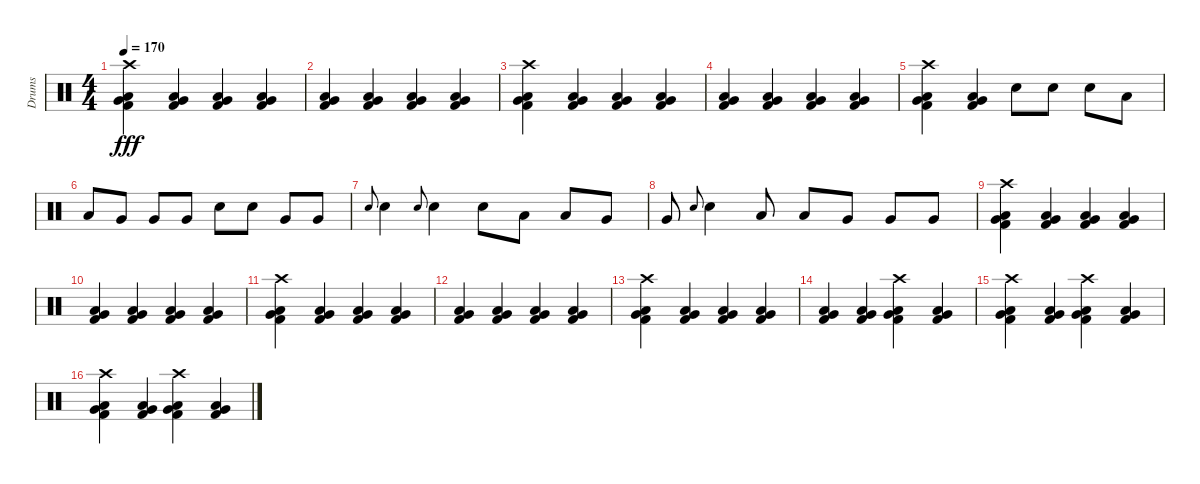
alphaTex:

\track ("Drums" "Drums") {instrument percussion}
\staff {score}
\articulation defaults
\ts (4 4)
\section ("" "")
\tempo 170
\clef neutral
\ks c
("Crash high (hit)" "Low Tom (hit)" "Very Low Tom (hit)" "Kick (hit) 2").4{dy fff} ("Low Tom (hit)" "Very Low Tom (hit)" "Kick (hit) 2").4 ("Low Tom (hit)" "Very Low Tom (hit)" "Kick (hit) 2").4 ("Low Tom (hit)" "Very Low Tom (hit)" "Kick (hit) 2").4 |
("Low Tom (hit)" "Very Low Tom (hit)" "Kick (hit) 2").4 ("Low Tom (hit)" "Very Low Tom (hit)" "Kick (hit) 2").4 ("Low Tom (hit)" "Very Low Tom (hit)" "Kick (hit) 2").4 ("Low Tom (hit)" "Very Low Tom (hit)" "Kick (hit) 2").4 |
("Crash high (hit)" "Low Tom (hit)" "Very Low Tom (hit)" "Kick (hit) 2").4 ("Low Tom (hit)" "Very Low Tom (hit)" "Kick (hit) 2").4 ("Low Tom (hit)" "Very Low Tom (hit)" "Kick (hit) 2").4 ("Low Tom (hit)" "Very Low Tom (hit)" "Kick (hit) 2").4 |
("Low Tom (hit)" "Very Low Tom (hit)" "Kick (hit) 2").4 ("Low Tom (hit)" "Very Low Tom (hit)" "Kick (hit) 2").4 ("Low Tom (hit)" "Very Low Tom (hit)" "Kick (hit) 2").4 ("Low Tom (hit)" "Very Low Tom (hit)" "Kick (hit) 2").4 |
("Crash high (hit)" "Low Tom (hit)" "Very Low Tom (hit)" "Kick (hit) 2").4 ("Low Tom (hit)" "Very Low Tom (hit)" "Kick (hit) 2").4 "Electric Snare (hit)".8 "Electric Snare (hit)".8 "Electric Snare (hit)".8 "Low Tom (hit)".8 |
"Low Tom (hit)".8 "Very Low Tom (hit)".8 "Very Low Tom (hit)".8 "Very Low Tom (hit)".8 "Electric Snare (hit)".8 "Electric Snare (hit)".8 "Very Low Tom (hit)".8 "Very Low Tom (hit)".8 |
"Electric Snare (hit)".8{gr onbeat} "Electric Snare (hit)".4 "Electric Snare (hit)".8{gr onbeat} "Electric Snare (hit)".4 "Electric Snare (hit)".8 "Low Tom (hit)".8 "Low Tom (hit)".8 "Very Low Tom (hit)".8 |
"Very Low Tom (hit)".8 "Electric Snare (hit)".8{gr onbeat} "Electric Snare (hit)".4 "Low Tom (hit)".8 "Low Tom (hit)".8 "Very Low Tom (hit)".8 "Very Low Tom (hit)".8 "Very Low Tom (hit)".8 |
("Crash high (hit)" "Low Tom (hit)" "Very Low Tom (hit)" "Kick (hit) 2").4 ("Low Tom (hit)" "Very Low Tom (hit)" "Kick (hit) 2").4 ("Low Tom (hit)" "Very Low Tom (hit)" "Kick (hit) 2").4 ("Low Tom (hit)" "Very Low Tom (hit)" "Kick (hit) 2").4 |
("Low Tom (hit)" "Very Low Tom (hit)" "Kick (hit) 2").4 ("Low Tom (hit)" "Very Low Tom (hit)" "Kick (hit) 2").4 ("Low Tom (hit)" "Very Low Tom (hit)" "Kick (hit) 2").4 ("Low Tom (hit)" "Very Low Tom (hit)" "Kick (hit) 2").4 |
("Crash high (hit)" "Low Tom (hit)" "Very Low Tom (hit)" "Kick (hit) 2").4 ("Low Tom (hit)" "Very Low Tom (hit)" "Kick (hit) 2").4 ("Low Tom (hit)" "Very Low Tom (hit)" "Kick (hit) 2").4 ("Low Tom (hit)" "Very Low Tom (hit)" "Kick (hit) 2").4 |
("Low Tom (hit)" "Very Low Tom (hit)" "Kick (hit) 2").4 ("Low Tom (hit)" "Very Low Tom (hit)" "Kick (hit) 2").4 ("Low Tom (hit)" "Very Low Tom (hit)" "Kick (hit) 2").4 ("Low Tom (hit)" "Very Low Tom (hit)" "Kick (hit) 2").4 |
("Crash high (hit)" "Low Tom (hit)" "Very Low Tom (hit)" "Kick (hit) 2").4 ("Low Tom (hit)" "Very Low Tom (hit)" "Kick (hit) 2").4 ("Low Tom (hit)" "Very Low Tom (hit)" "Kick (hit) 2").4 ("Low Tom (hit)" "Very Low Tom (hit)" "Kick (hit) 2").4 |
("Low Tom (hit)" "Very Low Tom (hit)" "Kick (hit) 2").4 ("Low Tom (hit)" "Very Low Tom (hit)" "Kick (hit) 2").4 ("Crash high (hit)" "Low Tom (hit)" "Very Low Tom (hit)" "Kick (hit) 2").4 ("Low Tom (hit)" "Very Low Tom (hit)" "Kick (hit) 2").4 |
("Crash high (hit)" "Low Tom (hit)" "Very Low Tom (hit)" "Kick (hit) 2").4 ("Low Tom (hit)" "Very Low Tom (hit)" "Kick (hit) 2").4 ("Crash high (hit)" "Low Tom (hit)" "Very Low Tom (hit)" "Kick (hit) 2").4 ("Low Tom (hit)" "Very Low Tom (hit)" "Kick (hit) 2").4 |
("Crash high (hit)" "Low Tom (hit)" "Very Low Tom (hit)" "Kick (hit) 2").4 ("Low Tom (hit)" "Very Low Tom (hit)" "Kick (hit) 2").4 ("Crash high (hit)" "Low Tom (hit)" "Very Low Tom (hit)" "Kick (hit) 2").4 ("Low Tom (hit)" "Very Low Tom (hit)" "Kick (hit) 2").4
